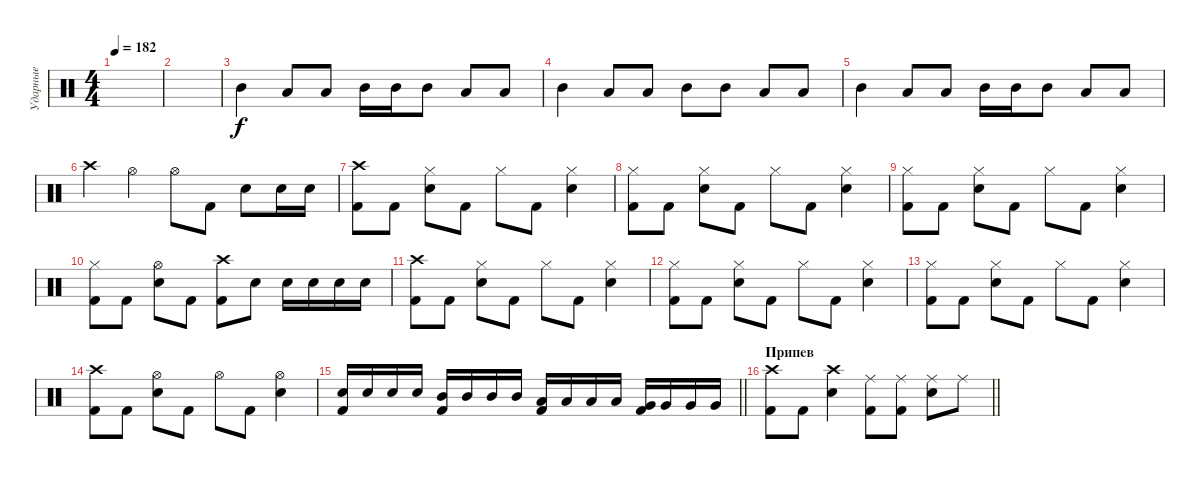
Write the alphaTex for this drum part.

\track ("Ударные" "Ударные") {instrument percussion}
\staff {score}
\articulation defaults
\ts (4 4)
\tempo 182
\clef neutral
\ks c
|
|
"Mid Tom (hit)".4 "Low Tom (hit)".8 "Low Tom (hit)".8 "Mid Tom (hit)".16 "Mid Tom (hit)".16 "Mid Tom (hit)".8 "Low Tom (hit)".8 "Low Tom (hit)".8 |
"Mid Tom (hit)".4 "Low Tom (hit)".8 "Low Tom (hit)".8 "Mid Tom (hit)".8 "Mid Tom (hit)".8 "Low Tom (hit)".8 "Low Tom (hit)".8 |
"Mid Tom (hit)".4 "Low Tom (hit)".8 "Low Tom (hit)".8 "Mid Tom (hit)".16 "Mid Tom (hit)".16 "Mid Tom (hit)".8 "Low Tom (hit)".8 "Low Tom (hit)".8 |
"Crash high (hit)".4 "Hi-Hat (open)".4 "Hi-Hat (open)".8 "Kick (hit) 2".8 "Snare (hit) 2".8 "Snare (hit) 2".16 "Snare (hit) 2".16 |
("Crash high (hit)" "Kick (hit) 2").8 "Kick (hit) 2".8 ("Hi-Hat (closed)" "Snare (hit) 2").8 "Kick (hit) 2".8 "Hi-Hat (closed)".8 "Kick (hit) 2".8 ("Hi-Hat (closed)" "Snare (hit) 2").4 |
("Hi-Hat (closed)" "Kick (hit) 2").8 "Kick (hit) 2".8 ("Hi-Hat (closed)" "Snare (hit) 2").8 "Kick (hit) 2".8 "Hi-Hat (closed)".8 "Kick (hit) 2".8 ("Hi-Hat (closed)" "Snare (hit) 2").4 |
("Hi-Hat (closed)" "Kick (hit) 2").8 "Kick (hit) 2".8 ("Hi-Hat (closed)" "Snare (hit) 2").8 "Kick (hit) 2".8 "Hi-Hat (closed)".8 "Kick (hit) 2".8 ("Hi-Hat (closed)" "Snare (hit) 2").4 |
("Hi-Hat (closed)" "Kick (hit) 2").8 "Kick (hit) 2".8 ("Hi-Hat (open)" "Snare (hit) 2").8 "Kick (hit) 2".8 ("Crash high (hit)" "Kick (hit) 2").8 "Snare (hit) 2".8 "Snare (hit) 2".16 "Snare (hit) 2".16 "Snare (hit) 2".16 "Snare (hit) 2".16 |
("Crash high (hit)" "Kick (hit) 2").8 "Kick (hit) 2".8 ("Hi-Hat (closed)" "Snare (hit) 2").8 "Kick (hit) 2".8 "Hi-Hat (closed)".8 "Kick (hit) 2".8 ("Hi-Hat (closed)" "Snare (hit) 2").4 |
("Hi-Hat (closed)" "Kick (hit) 2").8 "Kick (hit) 2".8 ("Hi-Hat (closed)" "Snare (hit) 2").8 "Kick (hit) 2".8 "Hi-Hat (closed)".8 "Kick (hit) 2".8 ("Hi-Hat (closed)" "Snare (hit) 2").4 |
("Hi-Hat (closed)" "Kick (hit) 2").8 "Kick (hit) 2".8 ("Hi-Hat (closed)" "Snare (hit) 2").8 "Kick (hit) 2".8 "Hi-Hat (closed)".8 "Kick (hit) 2".8 ("Hi-Hat (closed)" "Snare (hit) 2").4 |
("Crash high (hit)" "Kick (hit) 2").8 "Kick (hit) 2".8 ("Hi-Hat (open)" "Snare (hit) 2").8 "Kick (hit) 2".8 "Hi-Hat (open)".8 "Kick (hit) 2".8 ("Hi-Hat (open)" "Snare (hit) 2").4 |
\barLineRight lightlight
("Snare (hit) 2" "Kick (hit) 2").16 "Snare (hit) 2".16 "Snare (hit) 2".16 "Snare (hit) 2".16 ("Mid Tom (hit)" "Kick (hit) 2").16 "Mid Tom (hit)".16 "Mid Tom (hit)".16 "Mid Tom (hit)".16 ("Low Tom (hit)" "Kick (hit) 2").16 "Low Tom (hit)".16 "Low Tom (hit)".16 "Low Tom (hit)".16 ("Very Low Tom (hit)" "Kick (hit) 2").16 "Very Low Tom (hit)".16 "Very Low Tom (hit)".16 "Very Low Tom (hit)".16 |
\section ("" "Припев")
\barLineRight lightlight
("Crash high (hit)" "Kick (hit) 2").8 "Kick (hit) 2".8 ("Crash high (hit)" "Snare (hit) 2").4 ("Ride (middle)" "Kick (hit) 2").8 ("Ride (middle)" "Kick (hit) 2").8 ("Ride (middle)" "Snare (hit) 2").8 "Ride (middle)".8
